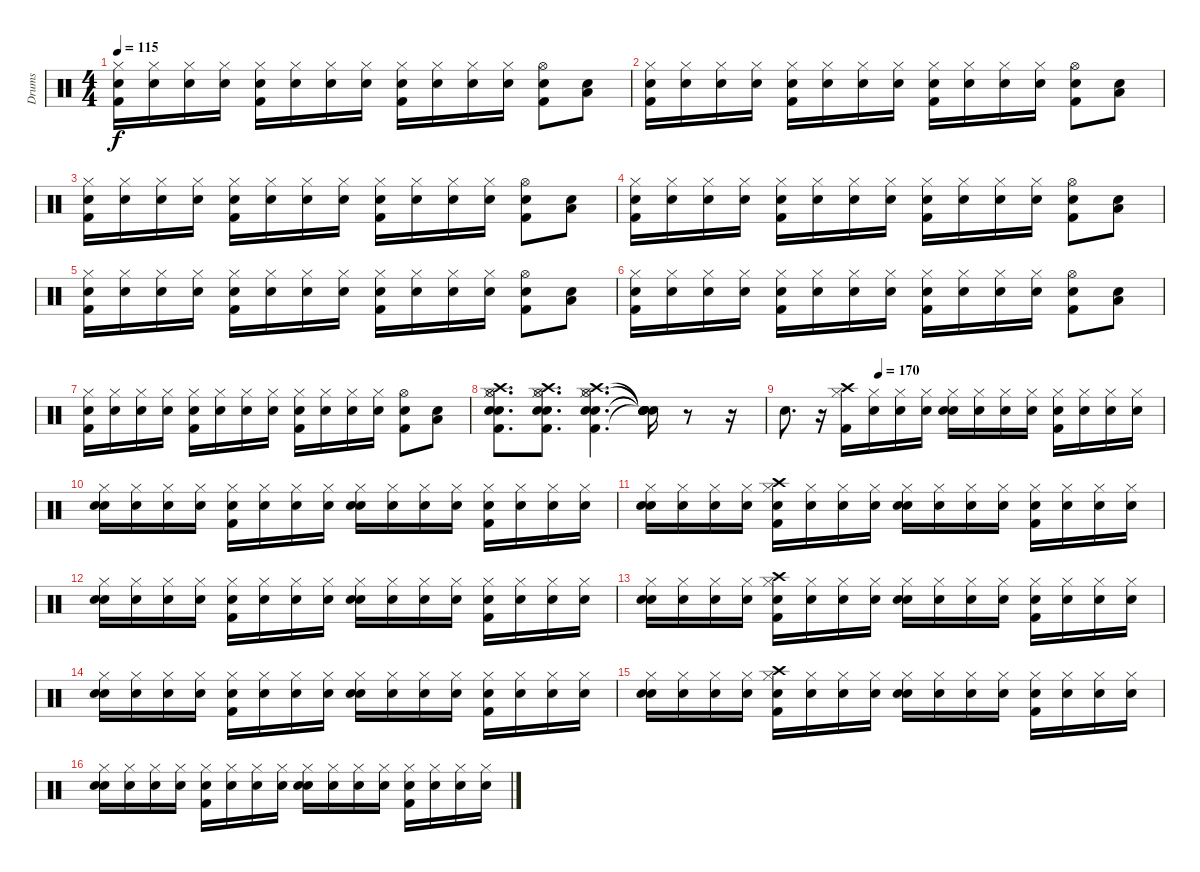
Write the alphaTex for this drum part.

\track ("Drums" "Drums") {instrument percussion}
\staff {score}
\articulation defaults
\ts (4 4)
\tempo 115
\clef neutral
\ks c
("Snare (hit)" "Kick (hit) 2" "Hi-Hat (closed)").16{dy f} ("Snare (hit)" "Hi-Hat (closed)").16 ("Snare (hit)" "Hi-Hat (closed)").16 ("Snare (hit)" "Hi-Hat (closed)").16 ("Snare (hit)" "Kick (hit) 2" "Hi-Hat (closed)").16 ("Snare (hit)" "Hi-Hat (closed)").16 ("Snare (hit)" "Hi-Hat (closed)").16 ("Snare (hit)" "Hi-Hat (closed)").16 ("Snare (hit)" "Kick (hit) 2" "Hi-Hat (closed)").16 ("Snare (hit)" "Hi-Hat (closed)").16 ("Snare (hit)" "Hi-Hat (closed)").16 ("Snare (hit)" "Hi-Hat (closed)").16 ("Snare (hit)" "Kick (hit) 2" "Hi-Hat (open)").8 ("Snare (hit)" "Low Tom (hit)").8 |
("Snare (hit)" "Kick (hit) 2" "Hi-Hat (closed)").16 ("Snare (hit)" "Hi-Hat (closed)").16 ("Snare (hit)" "Hi-Hat (closed)").16 ("Snare (hit)" "Hi-Hat (closed)").16 ("Snare (hit)" "Kick (hit) 2" "Hi-Hat (closed)").16 ("Snare (hit)" "Hi-Hat (closed)").16 ("Snare (hit)" "Hi-Hat (closed)").16 ("Snare (hit)" "Hi-Hat (closed)").16 ("Snare (hit)" "Kick (hit) 2" "Hi-Hat (closed)").16 ("Snare (hit)" "Hi-Hat (closed)").16 ("Snare (hit)" "Hi-Hat (closed)").16 ("Snare (hit)" "Hi-Hat (closed)").16 ("Snare (hit)" "Kick (hit) 2" "Hi-Hat (open)").8 ("Snare (hit)" "Low Tom (hit)").8 |
("Snare (hit)" "Kick (hit) 2" "Hi-Hat (closed)").16 ("Snare (hit)" "Hi-Hat (closed)").16 ("Snare (hit)" "Hi-Hat (closed)").16 ("Snare (hit)" "Hi-Hat (closed)").16 ("Snare (hit)" "Kick (hit) 2" "Hi-Hat (closed)").16 ("Snare (hit)" "Hi-Hat (closed)").16 ("Snare (hit)" "Hi-Hat (closed)").16 ("Snare (hit)" "Hi-Hat (closed)").16 ("Snare (hit)" "Kick (hit) 2" "Hi-Hat (closed)").16 ("Snare (hit)" "Hi-Hat (closed)").16 ("Snare (hit)" "Hi-Hat (closed)").16 ("Snare (hit)" "Hi-Hat (closed)").16 ("Snare (hit)" "Kick (hit) 2" "Hi-Hat (open)").8 ("Snare (hit)" "Low Tom (hit)").8 |
("Snare (hit)" "Kick (hit) 2" "Hi-Hat (closed)").16 ("Snare (hit)" "Hi-Hat (closed)").16 ("Snare (hit)" "Hi-Hat (closed)").16 ("Snare (hit)" "Hi-Hat (closed)").16 ("Snare (hit)" "Kick (hit) 2" "Hi-Hat (closed)").16 ("Snare (hit)" "Hi-Hat (closed)").16 ("Snare (hit)" "Hi-Hat (closed)").16 ("Snare (hit)" "Hi-Hat (closed)").16 ("Snare (hit)" "Kick (hit) 2" "Hi-Hat (closed)").16 ("Snare (hit)" "Hi-Hat (closed)").16 ("Snare (hit)" "Hi-Hat (closed)").16 ("Snare (hit)" "Hi-Hat (closed)").16 ("Snare (hit)" "Kick (hit) 2" "Hi-Hat (open)").8 ("Snare (hit)" "Low Tom (hit)").8 |
("Snare (hit)" "Kick (hit) 2" "Hi-Hat (closed)").16 ("Snare (hit)" "Hi-Hat (closed)").16 ("Snare (hit)" "Hi-Hat (closed)").16 ("Snare (hit)" "Hi-Hat (closed)").16 ("Snare (hit)" "Kick (hit) 2" "Hi-Hat (closed)").16 ("Snare (hit)" "Hi-Hat (closed)").16 ("Snare (hit)" "Hi-Hat (closed)").16 ("Snare (hit)" "Hi-Hat (closed)").16 ("Snare (hit)" "Kick (hit) 2" "Hi-Hat (closed)").16 ("Snare (hit)" "Hi-Hat (closed)").16 ("Snare (hit)" "Hi-Hat (closed)").16 ("Snare (hit)" "Hi-Hat (closed)").16 ("Snare (hit)" "Kick (hit) 2" "Hi-Hat (open)").8 ("Snare (hit)" "Low Tom (hit)").8 |
("Snare (hit)" "Kick (hit) 2" "Hi-Hat (closed)").16 ("Snare (hit)" "Hi-Hat (closed)").16 ("Snare (hit)" "Hi-Hat (closed)").16 ("Snare (hit)" "Hi-Hat (closed)").16 ("Snare (hit)" "Kick (hit) 2" "Hi-Hat (closed)").16 ("Snare (hit)" "Hi-Hat (closed)").16 ("Snare (hit)" "Hi-Hat (closed)").16 ("Snare (hit)" "Hi-Hat (closed)").16 ("Snare (hit)" "Kick (hit) 2" "Hi-Hat (closed)").16 ("Snare (hit)" "Hi-Hat (closed)").16 ("Snare (hit)" "Hi-Hat (closed)").16 ("Snare (hit)" "Hi-Hat (closed)").16 ("Snare (hit)" "Kick (hit) 2" "Hi-Hat (open)").8 ("Snare (hit)" "Low Tom (hit)").8 |
("Snare (hit)" "Kick (hit) 2" "Hi-Hat (closed)").16 ("Snare (hit)" "Hi-Hat (closed)").16 ("Snare (hit)" "Hi-Hat (closed)").16 ("Snare (hit)" "Hi-Hat (closed)").16 ("Snare (hit)" "Kick (hit) 2" "Hi-Hat (closed)").16 ("Snare (hit)" "Hi-Hat (closed)").16 ("Snare (hit)" "Hi-Hat (closed)").16 ("Snare (hit)" "Hi-Hat (closed)").16 ("Snare (hit)" "Kick (hit) 2" "Hi-Hat (closed)").16 ("Snare (hit)" "Hi-Hat (closed)").16 ("Snare (hit)" "Hi-Hat (closed)").16 ("Snare (hit)" "Hi-Hat (closed)").16 ("Snare (hit)" "Kick (hit) 2" "Hi-Hat (open)").8 ("Snare (hit)" "Low Tom (hit)").8 |
("Snare (hit)" "Kick (hit) 2" "Snare (hit) 2" "Hi-Hat (closed)" "Hi-Hat (open)" "Crash high (hit)").8{d} ("Snare (hit)" "Kick (hit) 2" "Snare (hit) 2" "Hi-Hat (closed)" "Hi-Hat (open)" "Crash high (hit)").8{d} ("Snare (hit)" "Kick (hit) 2" "Snare (hit) 2" "Hi-Hat (closed)" "Hi-Hat (open)" "Crash high (hit)").4{d} ("Snare (hit)"{t} "Snare (hit)"{t} "Snare (hit)"{t} "Snare (hit)"{t} "Snare (hit)"{t} "Snare (hit)"{t}).16 r.8 r.16 |
\tempo (168 0.25)
\tempo (170 0.25)
"Snare (hit) 2".8{d} r.16 ("Kick (hit) 2" "Hi-Hat (closed)" "Crash high (hit)").16 ("Snare (hit)" "Hi-Hat (closed)").16 ("Snare (hit)" "Hi-Hat (closed)").16 ("Snare (hit)" "Hi-Hat (closed)").16 ("Snare (hit)" "Snare (hit) 2" "Hi-Hat (closed)").16 ("Snare (hit)" "Hi-Hat (closed)").16 ("Snare (hit)" "Hi-Hat (closed)").16 ("Snare (hit)" "Hi-Hat (closed)").16 ("Snare (hit)" "Kick (hit) 2" "Hi-Hat (closed)").16 ("Snare (hit)" "Hi-Hat (closed)").16 ("Snare (hit)" "Hi-Hat (closed)").16 ("Snare (hit)" "Hi-Hat (closed)").16 |
("Snare (hit)" "Snare (hit) 2" "Hi-Hat (closed)").16 ("Snare (hit)" "Hi-Hat (closed)").16 ("Snare (hit)" "Hi-Hat (closed)").16 ("Snare (hit)" "Hi-Hat (closed)").16 ("Snare (hit)" "Kick (hit) 2" "Hi-Hat (closed)").16 ("Snare (hit)" "Hi-Hat (closed)").16 ("Snare (hit)" "Hi-Hat (closed)").16 ("Snare (hit)" "Hi-Hat (closed)").16 ("Snare (hit)" "Snare (hit) 2" "Hi-Hat (closed)").16 ("Snare (hit)" "Hi-Hat (closed)").16 ("Snare (hit)" "Hi-Hat (closed)").16 ("Snare (hit)" "Hi-Hat (closed)").16 ("Snare (hit)" "Kick (hit) 2" "Hi-Hat (closed)").16 ("Snare (hit)" "Hi-Hat (closed)").16 ("Snare (hit)" "Hi-Hat (closed)").16 ("Snare (hit)" "Hi-Hat (closed)").16 |
("Snare (hit)" "Snare (hit) 2" "Hi-Hat (closed)").16 ("Snare (hit)" "Hi-Hat (closed)").16 ("Snare (hit)" "Hi-Hat (closed)").16 ("Snare (hit)" "Hi-Hat (closed)").16 ("Snare (hit)" "Kick (hit) 2" "Hi-Hat (closed)" "Crash high (hit)").16 ("Snare (hit)" "Hi-Hat (closed)").16 ("Snare (hit)" "Hi-Hat (closed)").16 ("Snare (hit)" "Hi-Hat (closed)").16 ("Snare (hit)" "Snare (hit) 2" "Hi-Hat (closed)").16 ("Snare (hit)" "Hi-Hat (closed)").16 ("Snare (hit)" "Hi-Hat (closed)").16 ("Snare (hit)" "Hi-Hat (closed)").16 ("Snare (hit)" "Kick (hit) 2" "Hi-Hat (closed)").16 ("Snare (hit)" "Hi-Hat (closed)").16 ("Snare (hit)" "Hi-Hat (closed)").16 ("Snare (hit)" "Hi-Hat (closed)").16 |
("Snare (hit)" "Snare (hit) 2" "Hi-Hat (closed)").16 ("Snare (hit)" "Hi-Hat (closed)").16 ("Snare (hit)" "Hi-Hat (closed)").16 ("Snare (hit)" "Hi-Hat (closed)").16 ("Snare (hit)" "Kick (hit) 2" "Hi-Hat (closed)").16 ("Snare (hit)" "Hi-Hat (closed)").16 ("Snare (hit)" "Hi-Hat (closed)").16 ("Snare (hit)" "Hi-Hat (closed)").16 ("Snare (hit)" "Snare (hit) 2" "Hi-Hat (closed)").16 ("Snare (hit)" "Hi-Hat (closed)").16 ("Snare (hit)" "Hi-Hat (closed)").16 ("Snare (hit)" "Hi-Hat (closed)").16 ("Snare (hit)" "Kick (hit) 2" "Hi-Hat (closed)").16 ("Snare (hit)" "Hi-Hat (closed)").16 ("Snare (hit)" "Hi-Hat (closed)").16 ("Snare (hit)" "Hi-Hat (closed)").16 |
("Snare (hit)" "Snare (hit) 2" "Hi-Hat (closed)").16 ("Snare (hit)" "Hi-Hat (closed)").16 ("Snare (hit)" "Hi-Hat (closed)").16 ("Snare (hit)" "Hi-Hat (closed)").16 ("Snare (hit)" "Kick (hit) 2" "Hi-Hat (closed)" "Crash high (hit)").16 ("Snare (hit)" "Hi-Hat (closed)").16 ("Snare (hit)" "Hi-Hat (closed)").16 ("Snare (hit)" "Hi-Hat (closed)").16 ("Snare (hit)" "Snare (hit) 2" "Hi-Hat (closed)").16 ("Snare (hit)" "Hi-Hat (closed)").16 ("Snare (hit)" "Hi-Hat (closed)").16 ("Snare (hit)" "Hi-Hat (closed)").16 ("Snare (hit)" "Kick (hit) 2" "Hi-Hat (closed)").16 ("Snare (hit)" "Hi-Hat (closed)").16 ("Snare (hit)" "Hi-Hat (closed)").16 ("Snare (hit)" "Hi-Hat (closed)").16 |
("Snare (hit)" "Snare (hit) 2" "Hi-Hat (closed)").16 ("Snare (hit)" "Hi-Hat (closed)").16 ("Snare (hit)" "Hi-Hat (closed)").16 ("Snare (hit)" "Hi-Hat (closed)").16 ("Snare (hit)" "Kick (hit) 2" "Hi-Hat (closed)").16 ("Snare (hit)" "Hi-Hat (closed)").16 ("Snare (hit)" "Hi-Hat (closed)").16 ("Snare (hit)" "Hi-Hat (closed)").16 ("Snare (hit)" "Snare (hit) 2" "Hi-Hat (closed)").16 ("Snare (hit)" "Hi-Hat (closed)").16 ("Snare (hit)" "Hi-Hat (closed)").16 ("Snare (hit)" "Hi-Hat (closed)").16 ("Snare (hit)" "Kick (hit) 2" "Hi-Hat (closed)").16 ("Snare (hit)" "Hi-Hat (closed)").16 ("Snare (hit)" "Hi-Hat (closed)").16 ("Snare (hit)" "Hi-Hat (closed)").16 |
("Snare (hit)" "Snare (hit) 2" "Hi-Hat (closed)").16 ("Snare (hit)" "Hi-Hat (closed)").16 ("Snare (hit)" "Hi-Hat (closed)").16 ("Snare (hit)" "Hi-Hat (closed)").16 ("Snare (hit)" "Kick (hit) 2" "Hi-Hat (closed)" "Crash high (hit)").16 ("Snare (hit)" "Hi-Hat (closed)").16 ("Snare (hit)" "Hi-Hat (closed)").16 ("Snare (hit)" "Hi-Hat (closed)").16 ("Snare (hit)" "Snare (hit) 2" "Hi-Hat (closed)").16 ("Snare (hit)" "Hi-Hat (closed)").16 ("Snare (hit)" "Hi-Hat (closed)").16 ("Snare (hit)" "Hi-Hat (closed)").16 ("Snare (hit)" "Kick (hit) 2" "Hi-Hat (closed)").16 ("Snare (hit)" "Hi-Hat (closed)").16 ("Snare (hit)" "Hi-Hat (closed)").16 ("Snare (hit)" "Hi-Hat (closed)").16 |
("Snare (hit)" "Snare (hit) 2" "Hi-Hat (closed)").16 ("Snare (hit)" "Hi-Hat (closed)").16 ("Snare (hit)" "Hi-Hat (closed)").16 ("Snare (hit)" "Hi-Hat (closed)").16 ("Snare (hit)" "Kick (hit) 2" "Hi-Hat (closed)").16 ("Snare (hit)" "Hi-Hat (closed)").16 ("Snare (hit)" "Hi-Hat (closed)").16 ("Snare (hit)" "Hi-Hat (closed)").16 ("Snare (hit)" "Snare (hit) 2" "Hi-Hat (closed)").16 ("Snare (hit)" "Hi-Hat (closed)").16 ("Snare (hit)" "Hi-Hat (closed)").16 ("Snare (hit)" "Hi-Hat (closed)").16 ("Snare (hit)" "Kick (hit) 2" "Hi-Hat (closed)").16 ("Snare (hit)" "Hi-Hat (closed)").16 ("Snare (hit)" "Hi-Hat (closed)").16 ("Snare (hit)" "Hi-Hat (closed)").16
